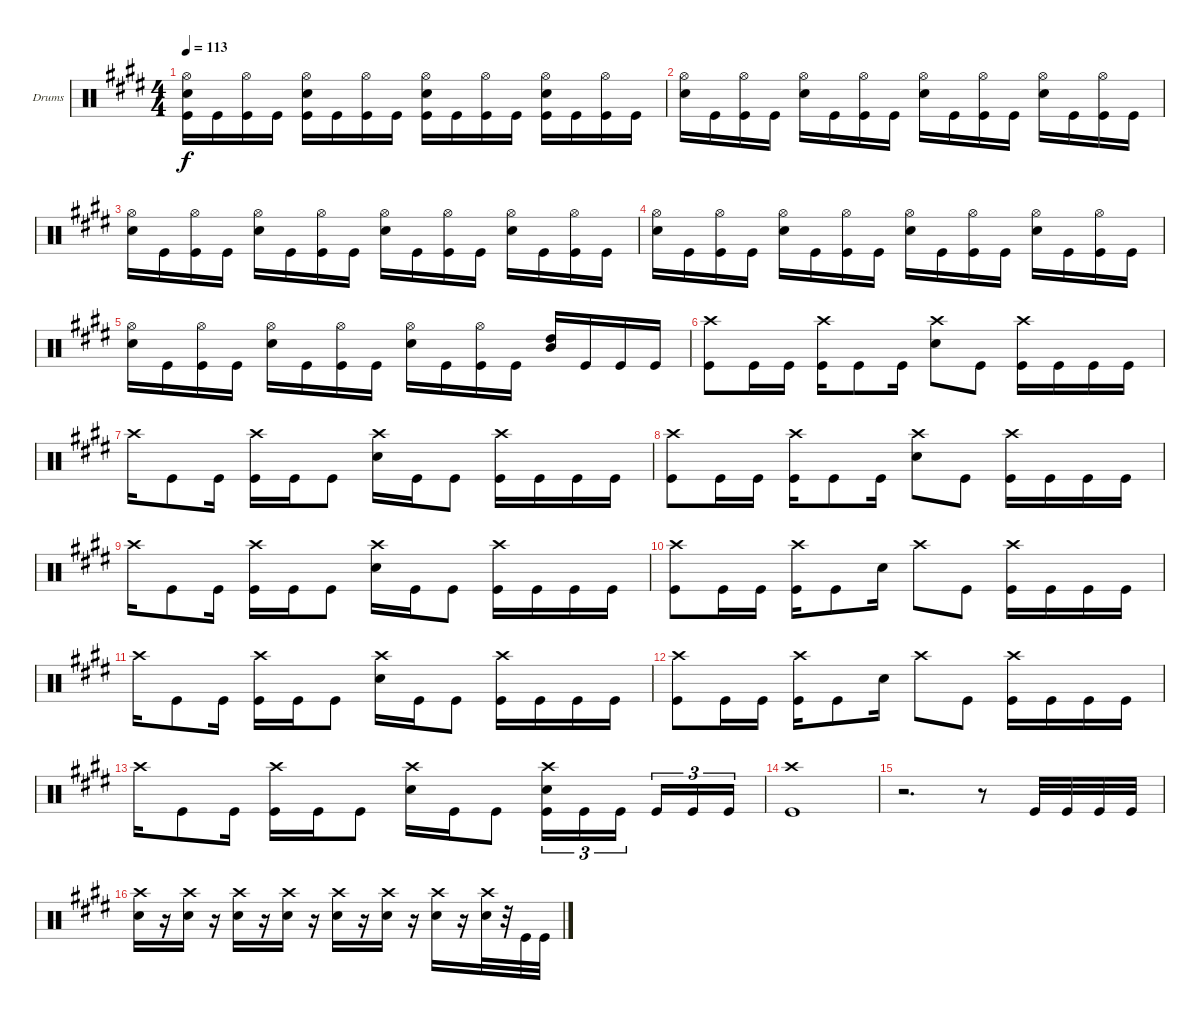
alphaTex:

\bracketExtendMode groupsimilarinstruments
\firstSystemTrackNameOrientation horizontal
\otherSystemsTrackNameOrientation horizontal
\track ("Drumkit" "Drums") {instrument percussion}
\staff {score}
\articulation defaults
\ts (4 4)
\tempo 113
\clef neutral
\ks e
("Snare (hit) 2" "Hi-Hat (open)" "Kick (hit)").16{dy f} "Kick (hit)".16 ("Kick (hit)" "Hi-Hat (open)").16 "Kick (hit)".16 ("Snare (hit) 2" "Hi-Hat (open)" "Kick (hit)").16 "Kick (hit)".16 ("Kick (hit)" "Hi-Hat (open)").16 "Kick (hit)".16 ("Snare (hit) 2" "Hi-Hat (open)" "Kick (hit)").16 "Kick (hit)".16 ("Kick (hit)" "Hi-Hat (open)").16 "Kick (hit)".16 ("Snare (hit) 2" "Hi-Hat (open)" "Kick (hit)").16 "Kick (hit)".16 ("Kick (hit)" "Hi-Hat (open)").16 "Kick (hit)".16 |
("Snare (hit) 2" "Hi-Hat (open)").16 "Kick (hit)".16 ("Kick (hit)" "Hi-Hat (open)").16 "Kick (hit)".16 ("Snare (hit) 2" "Hi-Hat (open)").16 "Kick (hit)".16 ("Kick (hit)" "Hi-Hat (open)").16 "Kick (hit)".16 ("Snare (hit) 2" "Hi-Hat (open)").16 "Kick (hit)".16 ("Kick (hit)" "Hi-Hat (open)").16 "Kick (hit)".16 ("Snare (hit) 2" "Hi-Hat (open)").16 "Kick (hit)".16 ("Kick (hit)" "Hi-Hat (open)").16 "Kick (hit)".16 |
("Snare (hit) 2" "Hi-Hat (open)").16 "Kick (hit)".16 ("Kick (hit)" "Hi-Hat (open)").16 "Kick (hit)".16 ("Snare (hit) 2" "Hi-Hat (open)").16 "Kick (hit)".16 ("Kick (hit)" "Hi-Hat (open)").16 "Kick (hit)".16 ("Snare (hit) 2" "Hi-Hat (open)").16 "Kick (hit)".16 ("Kick (hit)" "Hi-Hat (open)").16 "Kick (hit)".16 ("Snare (hit) 2" "Hi-Hat (open)").16 "Kick (hit)".16 ("Kick (hit)" "Hi-Hat (open)").16 "Kick (hit)".16 |
("Snare (hit) 2" "Hi-Hat (open)").16 "Kick (hit)".16 ("Kick (hit)" "Hi-Hat (open)").16 "Kick (hit)".16 ("Snare (hit) 2" "Hi-Hat (open)").16 "Kick (hit)".16 ("Kick (hit)" "Hi-Hat (open)").16 "Kick (hit)".16 ("Snare (hit) 2" "Hi-Hat (open)").16 "Kick (hit)".16 ("Kick (hit)" "Hi-Hat (open)").16 "Kick (hit)".16 ("Snare (hit) 2" "Hi-Hat (open)").16 "Kick (hit)".16 ("Kick (hit)" "Hi-Hat (open)").16 "Kick (hit)".16 |
("Snare (hit) 2" "Hi-Hat (open)").16 "Kick (hit)".16 ("Kick (hit)" "Hi-Hat (open)").16 "Kick (hit)".16 ("Snare (hit) 2" "Hi-Hat (open)").16 "Kick (hit)".16 ("Kick (hit)" "Hi-Hat (open)").16 "Kick (hit)".16 ("Snare (hit) 2" "Hi-Hat (open)").16 "Kick (hit)".16 ("Kick (hit)" "Hi-Hat (open)").16 "Kick (hit)".16 ("Mid Tom (hit)" "High Tom (hit)").16 "Kick (hit)".16 "Kick (hit)".16 "Kick (hit)".16 |
("Kick (hit)" "Crash high (hit)").8 "Kick (hit)".16 "Kick (hit)".16 ("Kick (hit)" "Crash high (hit)").16 "Kick (hit)".8 "Kick (hit)".16 ("Crash high (hit)" "Snare (hit) 2").8 "Kick (hit)".8 ("Kick (hit)" "Crash high (hit)").16 "Kick (hit)".16 "Kick (hit)".16 "Kick (hit)".16 |
"Crash high (hit)".16 "Kick (hit)".8 "Kick (hit)".16 ("Kick (hit)" "Crash high (hit)").16 "Kick (hit)".16 "Kick (hit)".8 ("Crash high (hit)" "Snare (hit) 2").16 "Kick (hit)".16 "Kick (hit)".8 ("Crash high (hit)" "Kick (hit)").16 "Kick (hit)".16 "Kick (hit)".16 "Kick (hit)".16 |
("Kick (hit)" "Crash high (hit)").8 "Kick (hit)".16 "Kick (hit)".16 ("Kick (hit)" "Crash high (hit)").16 "Kick (hit)".8 "Kick (hit)".16 ("Crash high (hit)" "Snare (hit) 2").8 "Kick (hit)".8 ("Kick (hit)" "Crash high (hit)").16 "Kick (hit)".16 "Kick (hit)".16 "Kick (hit)".16 |
"Crash high (hit)".16 "Kick (hit)".8 "Kick (hit)".16 ("Kick (hit)" "Crash high (hit)").16 "Kick (hit)".16 "Kick (hit)".8 ("Crash high (hit)" "Snare (hit) 2").16 "Kick (hit)".16 "Kick (hit)".8 ("Crash high (hit)" "Kick (hit)").16 "Kick (hit)".16 "Kick (hit)".16 "Kick (hit)".16 |
("Kick (hit)" "Crash high (hit)").8 "Kick (hit)".16 "Kick (hit)".16 ("Kick (hit)" "Crash high (hit)").16 "Kick (hit)".8 "Snare (hit) 2".16 "Crash high (hit)".8 "Kick (hit)".8 ("Kick (hit)" "Crash high (hit)").16 "Kick (hit)".16 "Kick (hit)".16 "Kick (hit)".16 |
"Crash high (hit)".16 "Kick (hit)".8 "Kick (hit)".16 ("Kick (hit)" "Crash high (hit)").16 "Kick (hit)".16 "Kick (hit)".8 ("Crash high (hit)" "Snare (hit) 2").16 "Kick (hit)".16 "Kick (hit)".8 ("Crash high (hit)" "Kick (hit)").16 "Kick (hit)".16 "Kick (hit)".16 "Kick (hit)".16 |
("Kick (hit)" "Crash high (hit)").8 "Kick (hit)".16 "Kick (hit)".16 ("Kick (hit)" "Crash high (hit)").16 "Kick (hit)".8 "Snare (hit) 2".16 "Crash high (hit)".8 "Kick (hit)".8 ("Kick (hit)" "Crash high (hit)").16 "Kick (hit)".16 "Kick (hit)".16 "Kick (hit)".16 |
"Crash high (hit)".16 "Kick (hit)".8 "Kick (hit)".16 ("Kick (hit)" "Crash high (hit)").16 "Kick (hit)".16 "Kick (hit)".8 ("Crash high (hit)" "Snare (hit) 2").16 "Kick (hit)".16 "Kick (hit)".8 ("Crash high (hit)" "Kick (hit)" "Snare (hit) 2").16{tu (3 2)} "Kick (hit)".16{tu (3 2)} "Kick (hit)".16{tu (3 2)} "Kick (hit)".16{tu (3 2)} "Kick (hit)".16{tu (3 2)} "Kick (hit)".16{tu (3 2)} |
("Kick (hit)" "Crash high (hit)").1 |
r.2{d} r.8 "Kick (hit)".32 "Kick (hit)".32 "Kick (hit)".32 "Kick (hit)".32 |
("Snare (hit) 2" "Crash high (hit)").16 r.16 ("Snare (hit) 2" "Crash high (hit)").16 r.16 ("Snare (hit) 2" "Crash high (hit)").16 r.16 ("Snare (hit) 2" "Crash high (hit)").16 r.16 ("Snare (hit) 2" "Crash high (hit)").16 r.16 ("Snare (hit) 2" "Crash high (hit)").16 r.16 ("Snare (hit) 2" "Crash high (hit)").16 r.16 ("Snare (hit) 2" "Crash high (hit)").32 r.32 "Kick (hit)".32 "Kick (hit)".32
